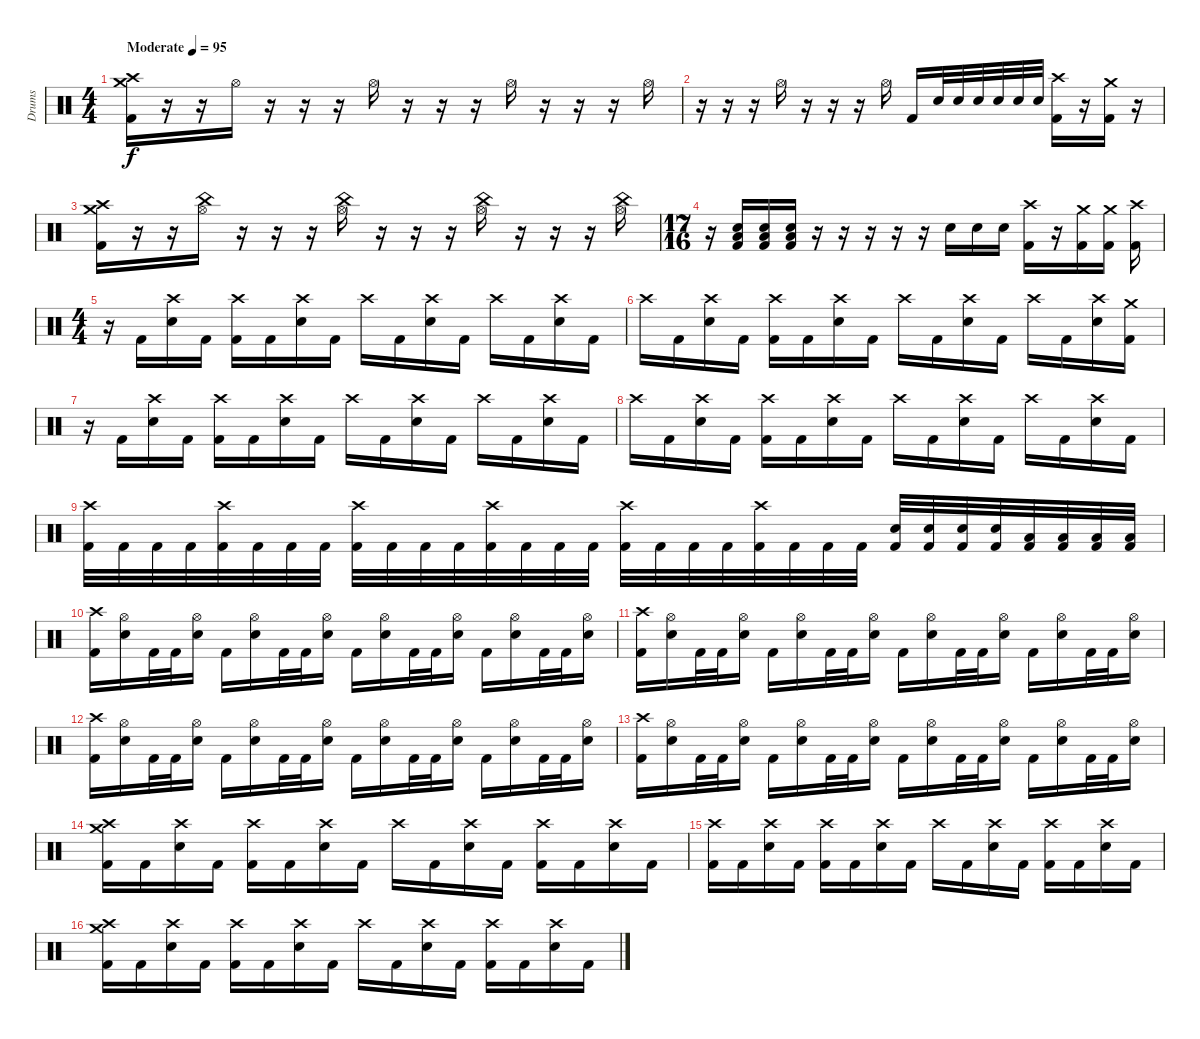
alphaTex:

\track ("Drums" "Drums") {instrument percussion}
\staff {score}
\articulation defaults
\ts (4 4)
\tempo (95 "Moderate")
\clef neutral
\ks c
("Crash medium (hit)" "Crash high (hit)" "Kick (hit) 2").16{dy f} r.16 r.16 "Hi-Hat (open)".16 r.16 r.16 r.16 "Hi-Hat (open)".16 r.16 r.16 r.16 "Hi-Hat (open)".16 r.16 r.16 r.16 "Hi-Hat (open)".16 |
r.16 r.16 r.16 "Hi-Hat (open)".16 r.16 r.16 r.16 "Hi-Hat (open)".16 "Kick (hit) 2".16 "Electric Snare (hit)".32 "Electric Snare (hit)".32 "Electric Snare (hit)".32 "Electric Snare (hit)".32 "Electric Snare (hit)".32 "Electric Snare (hit)".32 ("Crash high (hit)" "Kick (hit) 2").16 r.16 ("Crash medium (hit)" "Kick (hit) 2").16 r.16 |
("Crash medium (hit)" "Crash high (hit)" "Kick (hit) 2").16 r.16 r.16 ("China (hit)" "Hi-Hat (open)").16 r.16 r.16 r.16 ("China (hit)" "Hi-Hat (open)").16 r.16 r.16 r.16 ("China (hit)" "Hi-Hat (open)").16 r.16 r.16 r.16 ("China (hit)" "Hi-Hat (open)").16 |
\ts (17 16)
r.16 ("Low Floor Tom (hit)" "Electric Snare (hit)" "Kick (hit) 2").16 ("Low Floor Tom (hit)" "Electric Snare (hit)" "Kick (hit) 2").16 ("Low Floor Tom (hit)" "Electric Snare (hit)" "Kick (hit) 2").16 r.16 r.16 r.16 r.16 r.16 "Electric Snare (hit)".16 "Electric Snare (hit)".16 "Electric Snare (hit)".16 ("Crash high (hit)" "Kick (hit) 2").16 r.16 ("Crash medium (hit)" "Kick (hit) 2").16 ("Crash medium (hit)" "Kick (hit) 2").16 ("Crash high (hit)" "Kick (hit) 2").16 |
\ts (4 4)
r.16 "Kick (hit) 2".16 ("Crash high (hit)" "Electric Snare (hit)").16 "Kick (hit) 2".16 ("Crash high (hit)" "Kick (hit) 2").16 "Kick (hit) 2".16 ("Crash high (hit)" "Electric Snare (hit)").16 "Kick (hit) 2".16 "Crash high (hit)".16 "Kick (hit) 2".16 ("Crash high (hit)" "Electric Snare (hit)").16 "Kick (hit) 2".16 "Crash high (hit)".16 "Kick (hit) 2".16 ("Crash high (hit)" "Electric Snare (hit)").16 "Kick (hit) 2".16 |
"Crash high (hit)".16 "Kick (hit) 2".16 ("Crash high (hit)" "Electric Snare (hit)").16 "Kick (hit) 2".16 ("Crash high (hit)" "Kick (hit) 2").16 "Kick (hit) 2".16 ("Crash high (hit)" "Electric Snare (hit)").16 "Kick (hit) 2".16 "Crash high (hit)".16 "Kick (hit) 2".16 ("Crash high (hit)" "Electric Snare (hit)").16 "Kick (hit) 2".16 "Crash high (hit)".16 "Kick (hit) 2".16 ("Crash high (hit)" "Electric Snare (hit)").16 ("Crash medium (hit)" "Kick (hit) 2").16 |
r.16 "Kick (hit) 2".16 ("Crash high (hit)" "Electric Snare (hit)").16 "Kick (hit) 2".16 ("Crash high (hit)" "Kick (hit) 2").16 "Kick (hit) 2".16 ("Crash high (hit)" "Electric Snare (hit)").16 "Kick (hit) 2".16 "Crash high (hit)".16 "Kick (hit) 2".16 ("Crash high (hit)" "Electric Snare (hit)").16 "Kick (hit) 2".16 "Crash high (hit)".16 "Kick (hit) 2".16 ("Crash high (hit)" "Electric Snare (hit)").16 "Kick (hit) 2".16 |
"Crash high (hit)".16 "Kick (hit) 2".16 ("Crash high (hit)" "Electric Snare (hit)").16 "Kick (hit) 2".16 ("Crash high (hit)" "Kick (hit) 2").16 "Kick (hit) 2".16 ("Crash high (hit)" "Electric Snare (hit)").16 "Kick (hit) 2".16 "Crash high (hit)".16 "Kick (hit) 2".16 ("Crash high (hit)" "Electric Snare (hit)").16 "Kick (hit) 2".16 "Crash high (hit)".16 "Kick (hit) 2".16 ("Crash high (hit)" "Electric Snare (hit)").16 "Kick (hit) 2".16 |
("Crash high (hit)" "Kick (hit) 2").32 "Kick (hit) 2".32 "Kick (hit) 2".32 "Kick (hit) 2".32 ("Crash high (hit)" "Kick (hit) 2").32 "Kick (hit) 2".32 "Kick (hit) 2".32 "Kick (hit) 2".32 ("Crash high (hit)" "Kick (hit) 2").32 "Kick (hit) 2".32 "Kick (hit) 2".32 "Kick (hit) 2".32 ("Crash high (hit)" "Kick (hit) 2").32 "Kick (hit) 2".32 "Kick (hit) 2".32 "Kick (hit) 2".32 ("Crash high (hit)" "Kick (hit) 2").32 "Kick (hit) 2".32 "Kick (hit) 2".32 "Kick (hit) 2".32 ("Crash high (hit)" "Kick (hit) 2").32 "Kick (hit) 2".32 "Kick (hit) 2".32 "Kick (hit) 2".32 ("Electric Snare (hit)" "Kick (hit) 2").32 ("Electric Snare (hit)" "Kick (hit) 2").32 ("Electric Snare (hit)" "Kick (hit) 2").32 ("Electric Snare (hit)" "Kick (hit) 2").32 ("Low Tom (hit)" "Kick (hit) 2").32 ("Low Tom (hit)" "Kick (hit) 2").32 ("Low Tom (hit)" "Kick (hit) 2").32 ("Low Tom (hit)" "Kick (hit) 2").32 |
("Crash high (hit)" "Kick (hit) 2").16 ("Hi-Hat (open)" "Electric Snare (hit)").16 "Kick (hit) 2".32 "Kick (hit) 2".32 ("Hi-Hat (open)" "Electric Snare (hit)").16 "Kick (hit) 2".16 ("Hi-Hat (open)" "Electric Snare (hit)").16 "Kick (hit) 2".32 "Kick (hit) 2".32 ("Hi-Hat (open)" "Electric Snare (hit)").16 "Kick (hit) 2".16 ("Hi-Hat (open)" "Electric Snare (hit)").16 "Kick (hit) 2".32 "Kick (hit) 2".32 ("Hi-Hat (open)" "Electric Snare (hit)").16 "Kick (hit) 2".16 ("Hi-Hat (open)" "Electric Snare (hit)").16 "Kick (hit) 2".32 "Kick (hit) 2".32 ("Hi-Hat (open)" "Electric Snare (hit)").16 |
("Crash high (hit)" "Kick (hit) 2").16 ("Hi-Hat (open)" "Electric Snare (hit)").16 "Kick (hit) 2".32 "Kick (hit) 2".32 ("Hi-Hat (open)" "Electric Snare (hit)").16 "Kick (hit) 2".16 ("Hi-Hat (open)" "Electric Snare (hit)").16 "Kick (hit) 2".32 "Kick (hit) 2".32 ("Hi-Hat (open)" "Electric Snare (hit)").16 "Kick (hit) 2".16 ("Hi-Hat (open)" "Electric Snare (hit)").16 "Kick (hit) 2".32 "Kick (hit) 2".32 ("Hi-Hat (open)" "Electric Snare (hit)").16 "Kick (hit) 2".16 ("Hi-Hat (open)" "Electric Snare (hit)").16 "Kick (hit) 2".32 "Kick (hit) 2".32 ("Hi-Hat (open)" "Electric Snare (hit)").16 |
("Crash high (hit)" "Kick (hit) 2").16 ("Hi-Hat (open)" "Electric Snare (hit)").16 "Kick (hit) 2".32 "Kick (hit) 2".32 ("Hi-Hat (open)" "Electric Snare (hit)").16 "Kick (hit) 2".16 ("Hi-Hat (open)" "Electric Snare (hit)").16 "Kick (hit) 2".32 "Kick (hit) 2".32 ("Hi-Hat (open)" "Electric Snare (hit)").16 "Kick (hit) 2".16 ("Hi-Hat (open)" "Electric Snare (hit)").16 "Kick (hit) 2".32 "Kick (hit) 2".32 ("Hi-Hat (open)" "Electric Snare (hit)").16 "Kick (hit) 2".16 ("Hi-Hat (open)" "Electric Snare (hit)").16 "Kick (hit) 2".32 "Kick (hit) 2".32 ("Hi-Hat (open)" "Electric Snare (hit)").16 |
("Crash high (hit)" "Kick (hit) 2").16 ("Hi-Hat (open)" "Electric Snare (hit)").16 "Kick (hit) 2".32 "Kick (hit) 2".32 ("Hi-Hat (open)" "Electric Snare (hit)").16 "Kick (hit) 2".16 ("Hi-Hat (open)" "Electric Snare (hit)").16 "Kick (hit) 2".32 "Kick (hit) 2".32 ("Hi-Hat (open)" "Electric Snare (hit)").16 "Kick (hit) 2".16 ("Hi-Hat (open)" "Electric Snare (hit)").16 "Kick (hit) 2".32 "Kick (hit) 2".32 ("Hi-Hat (open)" "Electric Snare (hit)").16 "Kick (hit) 2".16 ("Hi-Hat (open)" "Electric Snare (hit)").16 "Kick (hit) 2".32 "Kick (hit) 2".32 ("Hi-Hat (open)" "Electric Snare (hit)").16 |
("Crash medium (hit)" "Crash high (hit)" "Kick (hit) 2").16 "Kick (hit) 2".16 ("Crash high (hit)" "Electric Snare (hit)").16 "Kick (hit) 2".16 ("Crash high (hit)" "Kick (hit) 2").16 "Kick (hit) 2".16 ("Crash high (hit)" "Electric Snare (hit)").16 "Kick (hit) 2".16 "Crash high (hit)".16 "Kick (hit) 2".16 ("Crash high (hit)" "Electric Snare (hit)").16 "Kick (hit) 2".16 ("Crash high (hit)" "Kick (hit) 2").16 "Kick (hit) 2".16 ("Crash high (hit)" "Electric Snare (hit)").16 "Kick (hit) 2".16 |
("Crash high (hit)" "Kick (hit) 2").16 "Kick (hit) 2".16 ("Crash high (hit)" "Electric Snare (hit)").16 "Kick (hit) 2".16 ("Crash high (hit)" "Kick (hit) 2").16 "Kick (hit) 2".16 ("Crash high (hit)" "Electric Snare (hit)").16 "Kick (hit) 2".16 "Crash high (hit)".16 "Kick (hit) 2".16 ("Crash high (hit)" "Electric Snare (hit)").16 "Kick (hit) 2".16 ("Crash high (hit)" "Kick (hit) 2").16 "Kick (hit) 2".16 ("Crash high (hit)" "Electric Snare (hit)").16 "Kick (hit) 2".16 |
("Crash medium (hit)" "Crash high (hit)" "Kick (hit) 2").16 "Kick (hit) 2".16 ("Crash high (hit)" "Electric Snare (hit)").16 "Kick (hit) 2".16 ("Crash high (hit)" "Kick (hit) 2").16 "Kick (hit) 2".16 ("Crash high (hit)" "Electric Snare (hit)").16 "Kick (hit) 2".16 "Crash high (hit)".16 "Kick (hit) 2".16 ("Crash high (hit)" "Electric Snare (hit)").16 "Kick (hit) 2".16 ("Crash high (hit)" "Kick (hit) 2").16 "Kick (hit) 2".16 ("Crash high (hit)" "Electric Snare (hit)").16 "Kick (hit) 2".16
